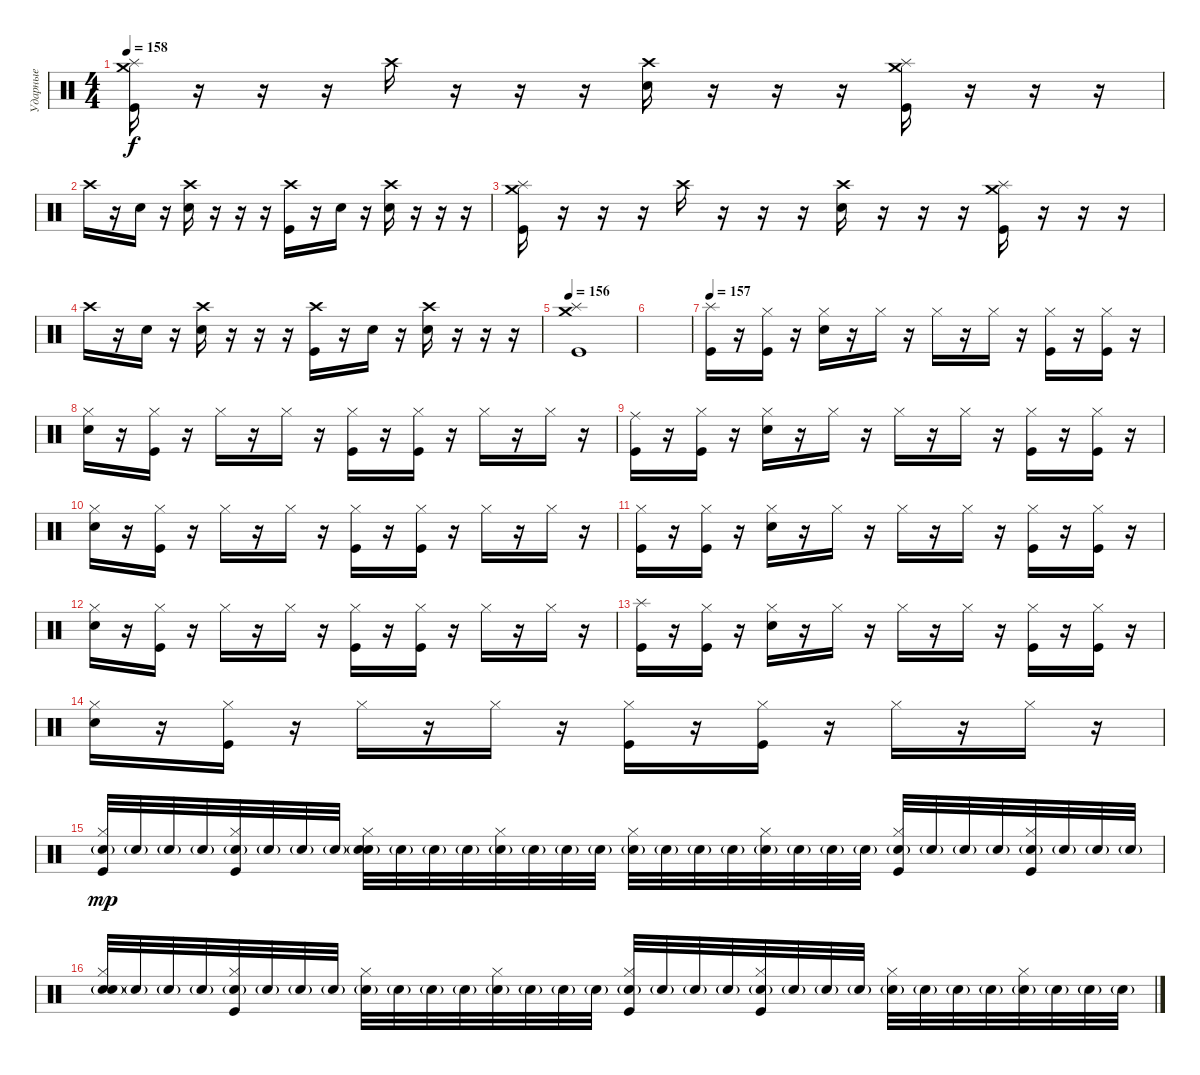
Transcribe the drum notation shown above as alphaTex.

\track ("Ударные" "Ударные") {instrument percussion}
\staff {score}
\articulation defaults
\ts (4 4)
\tempo 158
\clef neutral
\ks c
("Splash (hit)" "Crash medium (hit)" "Kick (hit)").16{dy f} r.16 r.16 r.16 "Crash high (hit)".16 r.16 r.16 r.16 ("Crash high (hit)" "Electric Snare (hit)").16 r.16 r.16 r.16 ("Splash (hit)" "Crash medium (hit)" "Kick (hit)").16 r.16 r.16 r.16 |
"Crash high (hit)".16 r.16 "Electric Snare (hit)".16 r.16 ("Crash high (hit)" "Electric Snare (hit)").16 r.16 r.16 r.16 ("Crash high (hit)" "Kick (hit)").16 r.16 "Electric Snare (hit)".16 r.16 ("Crash high (hit)" "Electric Snare (hit)").16 r.16 r.16 r.16 |
("Splash (hit)" "Crash medium (hit)" "Kick (hit)").16 r.16 r.16 r.16 "Crash high (hit)".16 r.16 r.16 r.16 ("Crash high (hit)" "Electric Snare (hit)").16 r.16 r.16 r.16 ("Splash (hit)" "Crash medium (hit)" "Kick (hit)").16 r.16 r.16 r.16 |
"Crash high (hit)".16 r.16 "Electric Snare (hit)".16 r.16 ("Crash high (hit)" "Electric Snare (hit)").16 r.16 r.16 r.16 ("Crash high (hit)" "Kick (hit)").16 r.16 "Electric Snare (hit)".16 r.16 ("Crash high (hit)" "Electric Snare (hit)").16 r.16 r.16 r.16 |
\tempo 156
("Splash (hit)" "Crash medium (hit)" "Kick (hit)").1 |
|
\tempo 157
("Splash (hit)" "Kick (hit)").16 r.16 ("Hi-Hat (closed)" "Kick (hit)").16 r.16 ("Hi-Hat (closed)" "Electric Snare (hit)").16 r.16 "Hi-Hat (closed)".16 r.16 "Hi-Hat (closed)".16 r.16 "Hi-Hat (closed)".16 r.16 ("Hi-Hat (closed)" "Kick (hit)").16 r.16 ("Hi-Hat (closed)" "Kick (hit)").16 r.16 |
("Hi-Hat (closed)" "Electric Snare (hit)").16 r.16 ("Hi-Hat (closed)" "Kick (hit)").16 r.16 "Hi-Hat (closed)".16 r.16 "Hi-Hat (closed)".16 r.16 ("Hi-Hat (closed)" "Kick (hit)").16 r.16 ("Hi-Hat (closed)" "Kick (hit)").16 r.16 "Hi-Hat (closed)".16 r.16 "Hi-Hat (closed)".16 r.16 |
("Ride (middle)" "Kick (hit)").16 r.16 ("Hi-Hat (closed)" "Kick (hit)").16 r.16 ("Hi-Hat (closed)" "Electric Snare (hit)").16 r.16 "Hi-Hat (closed)".16 r.16 "Hi-Hat (closed)".16 r.16 "Hi-Hat (closed)".16 r.16 ("Hi-Hat (closed)" "Kick (hit)").16 r.16 ("Hi-Hat (closed)" "Kick (hit)").16 r.16 |
("Hi-Hat (closed)" "Electric Snare (hit)").16 r.16 ("Hi-Hat (closed)" "Kick (hit)").16 r.16 "Hi-Hat (closed)".16 r.16 "Hi-Hat (closed)".16 r.16 ("Hi-Hat (closed)" "Kick (hit)").16 r.16 ("Hi-Hat (closed)" "Kick (hit)").16 r.16 "Hi-Hat (closed)".16 r.16 "Hi-Hat (closed)".16 r.16 |
("Hi-Hat (closed)" "Kick (hit)").16 r.16 ("Hi-Hat (closed)" "Kick (hit)").16 r.16 ("Hi-Hat (closed)" "Electric Snare (hit)").16 r.16 "Hi-Hat (closed)".16 r.16 "Hi-Hat (closed)".16 r.16 "Hi-Hat (closed)".16 r.16 ("Hi-Hat (closed)" "Kick (hit)").16 r.16 ("Hi-Hat (closed)" "Kick (hit)").16 r.16 |
("Hi-Hat (closed)" "Electric Snare (hit)").16 r.16 ("Hi-Hat (closed)" "Kick (hit)").16 r.16 "Hi-Hat (closed)".16 r.16 "Hi-Hat (closed)".16 r.16 ("Hi-Hat (closed)" "Kick (hit)").16 r.16 ("Hi-Hat (closed)" "Kick (hit)").16 r.16 "Hi-Hat (closed)".16 r.16 "Hi-Hat (closed)".16 r.16 |
("Splash (hit)" "Kick (hit)").16 r.16 ("Hi-Hat (closed)" "Kick (hit)").16 r.16 ("Hi-Hat (closed)" "Electric Snare (hit)").16 r.16 "Hi-Hat (closed)".16 r.16 "Hi-Hat (closed)".16 r.16 "Hi-Hat (closed)".16 r.16 ("Hi-Hat (closed)" "Kick (hit)").16 r.16 ("Hi-Hat (closed)" "Kick (hit)").16 r.16 |
("Hi-Hat (closed)" "Electric Snare (hit)").16 r.16 ("Hi-Hat (closed)" "Kick (hit)").16 r.16 "Hi-Hat (closed)".16 r.16 "Hi-Hat (closed)".16 r.16 ("Hi-Hat (closed)" "Kick (hit)").16 r.16 ("Hi-Hat (closed)" "Kick (hit)").16 r.16 "Hi-Hat (closed)".16 r.16 "Hi-Hat (closed)".16 r.16 |
("Hi-Hat (closed)" "Snare (hit) 2"{g} "Kick (hit)").32{dy mp} "Snare (hit) 2"{g}.32 "Snare (hit) 2"{g}.32 "Snare (hit) 2"{g}.32 ("Hi-Hat (closed)" "Snare (hit) 2"{g} "Kick (hit)").32 "Snare (hit) 2"{g}.32 "Snare (hit) 2"{g}.32 "Snare (hit) 2"{g}.32 ("Hi-Hat (closed)" "Electric Snare (hit)" "Snare (hit) 2"{g}).32 "Snare (hit) 2"{g}.32 "Snare (hit) 2"{g}.32 "Snare (hit) 2"{g}.32 ("Hi-Hat (closed)" "Snare (hit) 2"{g}).32 "Snare (hit) 2"{g}.32 "Snare (hit) 2"{g}.32 "Snare (hit) 2"{g}.32 ("Hi-Hat (closed)" "Snare (hit) 2"{g}).32 "Snare (hit) 2"{g}.32 "Snare (hit) 2"{g}.32 "Snare (hit) 2"{g}.32 ("Hi-Hat (closed)" "Snare (hit) 2"{g}).32 "Snare (hit) 2"{g}.32 "Snare (hit) 2"{g}.32 "Snare (hit) 2"{g}.32 ("Hi-Hat (closed)" "Snare (hit) 2"{g} "Kick (hit)").32 "Snare (hit) 2"{g}.32 "Snare (hit) 2"{g}.32 "Snare (hit) 2"{g}.32 ("Hi-Hat (closed)" "Snare (hit) 2"{g} "Kick (hit)").32 "Snare (hit) 2"{g}.32 "Snare (hit) 2"{g}.32 "Snare (hit) 2"{g}.32 |
("Hi-Hat (closed)" "Electric Snare (hit)" "Snare (hit) 2"{g}).32 "Snare (hit) 2"{g}.32 "Snare (hit) 2"{g}.32 "Snare (hit) 2"{g}.32 ("Hi-Hat (closed)" "Snare (hit) 2"{g} "Kick (hit)").32 "Snare (hit) 2"{g}.32 "Snare (hit) 2"{g}.32 "Snare (hit) 2"{g}.32 ("Hi-Hat (closed)" "Snare (hit) 2"{g}).32 "Snare (hit) 2"{g}.32 "Snare (hit) 2"{g}.32 "Snare (hit) 2"{g}.32 ("Hi-Hat (closed)" "Snare (hit) 2"{g}).32 "Snare (hit) 2"{g}.32 "Snare (hit) 2"{g}.32 "Snare (hit) 2"{g}.32 ("Hi-Hat (closed)" "Snare (hit) 2"{g} "Kick (hit)").32 "Snare (hit) 2"{g}.32 "Snare (hit) 2"{g}.32 "Snare (hit) 2"{g}.32 ("Hi-Hat (closed)" "Snare (hit) 2"{g} "Kick (hit)").32 "Snare (hit) 2"{g}.32 "Snare (hit) 2"{g}.32 "Snare (hit) 2"{g}.32 ("Hi-Hat (closed)" "Snare (hit) 2"{g}).32 "Snare (hit) 2"{g}.32 "Snare (hit) 2"{g}.32 "Snare (hit) 2"{g}.32 ("Hi-Hat (closed)" "Snare (hit) 2"{g}).32 "Snare (hit) 2"{g}.32 "Snare (hit) 2"{g}.32 "Snare (hit) 2"{g}.32
